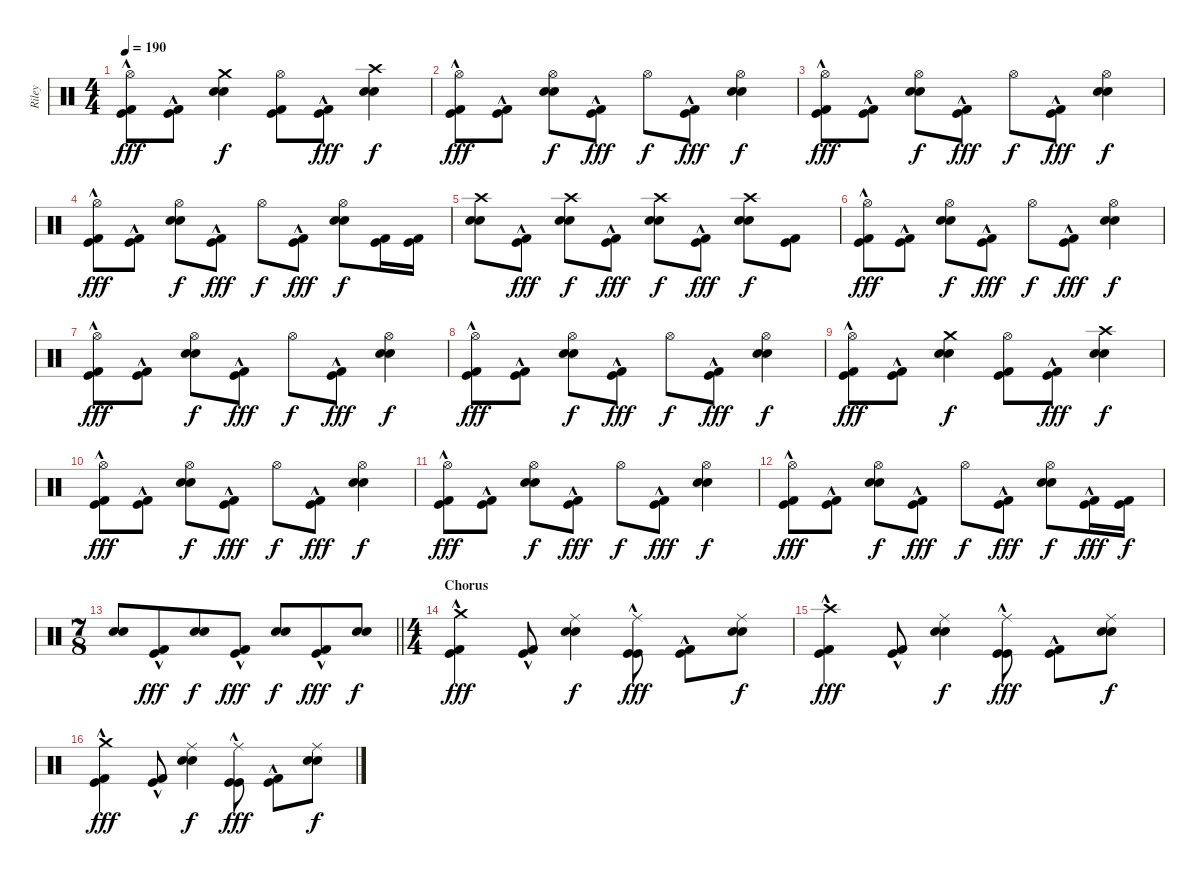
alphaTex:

\track ("Riley" "Riley") {instrument percussion}
\staff {score}
\articulation defaults
\ts (4 4)
\tempo 190
\clef neutral
\ks c
("Hi-Hat (open)" "Kick (hit)"{hac} "Kick (hit) 2"{hac}).8{dy fff} ("Kick (hit)"{hac} "Kick (hit) 2"{hac}).8 ("Crash medium (hit)" "Electric Snare (hit)" "Snare (hit) 2").4{dy f} ("Hi-Hat (open)" "Kick (hit)" "Kick (hit) 2").8 ("Kick (hit)"{hac} "Kick (hit) 2"{hac}).8{dy fff} ("Crash high (hit)" "Electric Snare (hit)" "Snare (hit) 2").4{dy f} |
("Hi-Hat (open)" "Kick (hit)"{hac} "Kick (hit) 2"{hac}).8{dy fff} ("Kick (hit)"{hac} "Kick (hit) 2"{hac}).8 ("Hi-Hat (open)" "Electric Snare (hit)" "Snare (hit) 2").8{dy f} ("Kick (hit)"{hac} "Kick (hit) 2"{hac}).8{dy fff} "Hi-Hat (open)".8{dy f} ("Kick (hit)"{hac} "Kick (hit) 2"{hac}).8{dy fff} ("Hi-Hat (open)" "Electric Snare (hit)" "Snare (hit) 2").4{dy f} |
("Hi-Hat (open)" "Kick (hit)"{hac} "Kick (hit) 2"{hac}).8{dy fff} ("Kick (hit)"{hac} "Kick (hit) 2"{hac}).8 ("Hi-Hat (open)" "Electric Snare (hit)" "Snare (hit) 2").8{dy f} ("Kick (hit)"{hac} "Kick (hit) 2"{hac}).8{dy fff} "Hi-Hat (open)".8{dy f} ("Kick (hit)"{hac} "Kick (hit) 2"{hac}).8{dy fff} ("Hi-Hat (open)" "Electric Snare (hit)" "Snare (hit) 2").4{dy f} |
("Hi-Hat (open)" "Kick (hit)"{hac} "Kick (hit) 2"{hac}).8{dy fff} ("Kick (hit)"{hac} "Kick (hit) 2"{hac}).8 ("Hi-Hat (open)" "Electric Snare (hit)" "Snare (hit) 2").8{dy f} ("Kick (hit)"{hac} "Kick (hit) 2"{hac}).8{dy fff} "Hi-Hat (open)".8{dy f} ("Kick (hit)"{hac} "Kick (hit) 2"{hac}).8{dy fff} ("Hi-Hat (open)" "Electric Snare (hit)" "Snare (hit) 2").8{dy f} ("Kick (hit)" "Kick (hit) 2").16 ("Kick (hit)" "Kick (hit) 2").16 |
("Crash high (hit)" "Electric Snare (hit)" "Snare (hit) 2").8 ("Kick (hit)"{hac} "Kick (hit) 2"{hac}).8{dy fff} ("Crash high (hit)" "Electric Snare (hit)" "Snare (hit) 2").8{dy f} ("Kick (hit)"{hac} "Kick (hit) 2"{hac}).8{dy fff} ("Crash high (hit)" "Electric Snare (hit)" "Snare (hit) 2").8{dy f} ("Kick (hit)"{hac} "Kick (hit) 2"{hac}).8{dy fff} ("Crash high (hit)" "Electric Snare (hit)" "Snare (hit) 2").8{dy f} ("Kick (hit)" "Kick (hit) 2").8 |
("Hi-Hat (open)" "Kick (hit)"{hac} "Kick (hit) 2"{hac}).8{dy fff} ("Kick (hit)"{hac} "Kick (hit) 2"{hac}).8 ("Hi-Hat (open)" "Electric Snare (hit)" "Snare (hit) 2").8{dy f} ("Kick (hit)"{hac} "Kick (hit) 2"{hac}).8{dy fff} "Hi-Hat (open)".8{dy f} ("Kick (hit)"{hac} "Kick (hit) 2"{hac}).8{dy fff} ("Hi-Hat (open)" "Electric Snare (hit)" "Snare (hit) 2").4{dy f} |
("Hi-Hat (open)" "Kick (hit)"{hac} "Kick (hit) 2"{hac}).8{dy fff} ("Kick (hit)"{hac} "Kick (hit) 2"{hac}).8 ("Hi-Hat (open)" "Electric Snare (hit)" "Snare (hit) 2").8{dy f} ("Kick (hit)"{hac} "Kick (hit) 2"{hac}).8{dy fff} "Hi-Hat (open)".8{dy f} ("Kick (hit)"{hac} "Kick (hit) 2"{hac}).8{dy fff} ("Hi-Hat (open)" "Electric Snare (hit)" "Snare (hit) 2").4{dy f} |
("Hi-Hat (open)" "Kick (hit)"{hac} "Kick (hit) 2"{hac}).8{dy fff} ("Kick (hit)"{hac} "Kick (hit) 2"{hac}).8 ("Hi-Hat (open)" "Electric Snare (hit)" "Snare (hit) 2").8{dy f} ("Kick (hit)"{hac} "Kick (hit) 2"{hac}).8{dy fff} "Hi-Hat (open)".8{dy f} ("Kick (hit)"{hac} "Kick (hit) 2"{hac}).8{dy fff} ("Hi-Hat (open)" "Electric Snare (hit)" "Snare (hit) 2").4{dy f} |
("Hi-Hat (open)" "Kick (hit)"{hac} "Kick (hit) 2"{hac}).8{dy fff} ("Kick (hit)"{hac} "Kick (hit) 2"{hac}).8 ("Crash medium (hit)" "Electric Snare (hit)" "Snare (hit) 2").4{dy f} ("Hi-Hat (open)" "Kick (hit)" "Kick (hit) 2").8 ("Kick (hit)"{hac} "Kick (hit) 2"{hac}).8{dy fff} ("Crash high (hit)" "Electric Snare (hit)" "Snare (hit) 2").4{dy f} |
("Hi-Hat (open)" "Kick (hit)"{hac} "Kick (hit) 2"{hac}).8{dy fff} ("Kick (hit)"{hac} "Kick (hit) 2"{hac}).8 ("Hi-Hat (open)" "Electric Snare (hit)" "Snare (hit) 2").8{dy f} ("Kick (hit)"{hac} "Kick (hit) 2"{hac}).8{dy fff} "Hi-Hat (open)".8{dy f} ("Kick (hit)"{hac} "Kick (hit) 2"{hac}).8{dy fff} ("Hi-Hat (open)" "Electric Snare (hit)" "Snare (hit) 2").4{dy f} |
("Hi-Hat (open)" "Kick (hit)"{hac} "Kick (hit) 2"{hac}).8{dy fff} ("Kick (hit)"{hac} "Kick (hit) 2"{hac}).8 ("Hi-Hat (open)" "Electric Snare (hit)" "Snare (hit) 2").8{dy f} ("Kick (hit)"{hac} "Kick (hit) 2"{hac}).8{dy fff} "Hi-Hat (open)".8{dy f} ("Kick (hit)"{hac} "Kick (hit) 2"{hac}).8{dy fff} ("Hi-Hat (open)" "Electric Snare (hit)" "Snare (hit) 2").4{dy f} |
("Hi-Hat (open)" "Kick (hit)"{hac} "Kick (hit) 2"{hac}).8{dy fff} ("Kick (hit)"{hac} "Kick (hit) 2"{hac}).8 ("Hi-Hat (open)" "Electric Snare (hit)" "Snare (hit) 2").8{dy f} ("Kick (hit)"{hac} "Kick (hit) 2"{hac}).8{dy fff} "Hi-Hat (open)".8{dy f} ("Kick (hit)"{hac} "Kick (hit) 2"{hac}).8{dy fff} ("Hi-Hat (open)" "Electric Snare (hit)" "Snare (hit) 2").8{dy f} ("Kick (hit)"{hac} "Kick (hit) 2"{hac}).16{dy fff} ("Kick (hit)" "Kick (hit) 2").16{dy f} |
\ts (7 8)
\barLineRight lightlight
("Electric Snare (hit)" "Snare (hit) 2").8 ("Kick (hit)"{hac} "Kick (hit) 2"{hac}).8{dy fff} ("Electric Snare (hit)" "Snare (hit) 2").8{dy f} ("Kick (hit)"{hac} "Kick (hit) 2"{hac}).8{dy fff} ("Electric Snare (hit)" "Snare (hit) 2").8{dy f} ("Kick (hit)"{hac} "Kick (hit) 2"{hac}).8{dy fff} ("Electric Snare (hit)" "Snare (hit) 2").8{dy f} |
\ts (4 4)
\section ("" "Chorus")
("Crash medium (hit)" "Kick (hit)"{hac} "Kick (hit) 2"{hac}).4{dy fff} ("Kick (hit)"{hac} "Kick (hit) 2"{hac}).8 ("Ride (middle)" "Electric Snare (hit)" "Snare (hit) 2").4{dy f} ("Ride (middle)" "Kick (hit)"{hac} "Kick (hit)"{hac}).8{dy fff} ("Kick (hit)"{hac} "Kick (hit) 2"{hac}).8 ("Ride (middle)" "Electric Snare (hit)" "Snare (hit) 2").8{dy f} |
("Crash high (hit)" "Kick (hit)"{hac} "Kick (hit) 2"{hac}).4{dy fff} ("Kick (hit)"{hac} "Kick (hit) 2"{hac}).8 ("Ride (middle)" "Electric Snare (hit)" "Snare (hit) 2").4{dy f} ("Ride (middle)" "Kick (hit)"{hac} "Kick (hit)"{hac}).8{dy fff} ("Kick (hit)"{hac} "Kick (hit) 2"{hac}).8 ("Ride (middle)" "Electric Snare (hit)" "Snare (hit) 2").8{dy f} |
("Crash medium (hit)" "Kick (hit)"{hac} "Kick (hit) 2"{hac}).4{dy fff} ("Kick (hit)"{hac} "Kick (hit) 2"{hac}).8 ("Ride (middle)" "Electric Snare (hit)" "Snare (hit) 2").4{dy f} ("Ride (middle)" "Kick (hit)"{hac} "Kick (hit)"{hac}).8{dy fff} ("Kick (hit)"{hac} "Kick (hit) 2"{hac}).8 ("Ride (middle)" "Electric Snare (hit)" "Snare (hit) 2").8{dy f}
